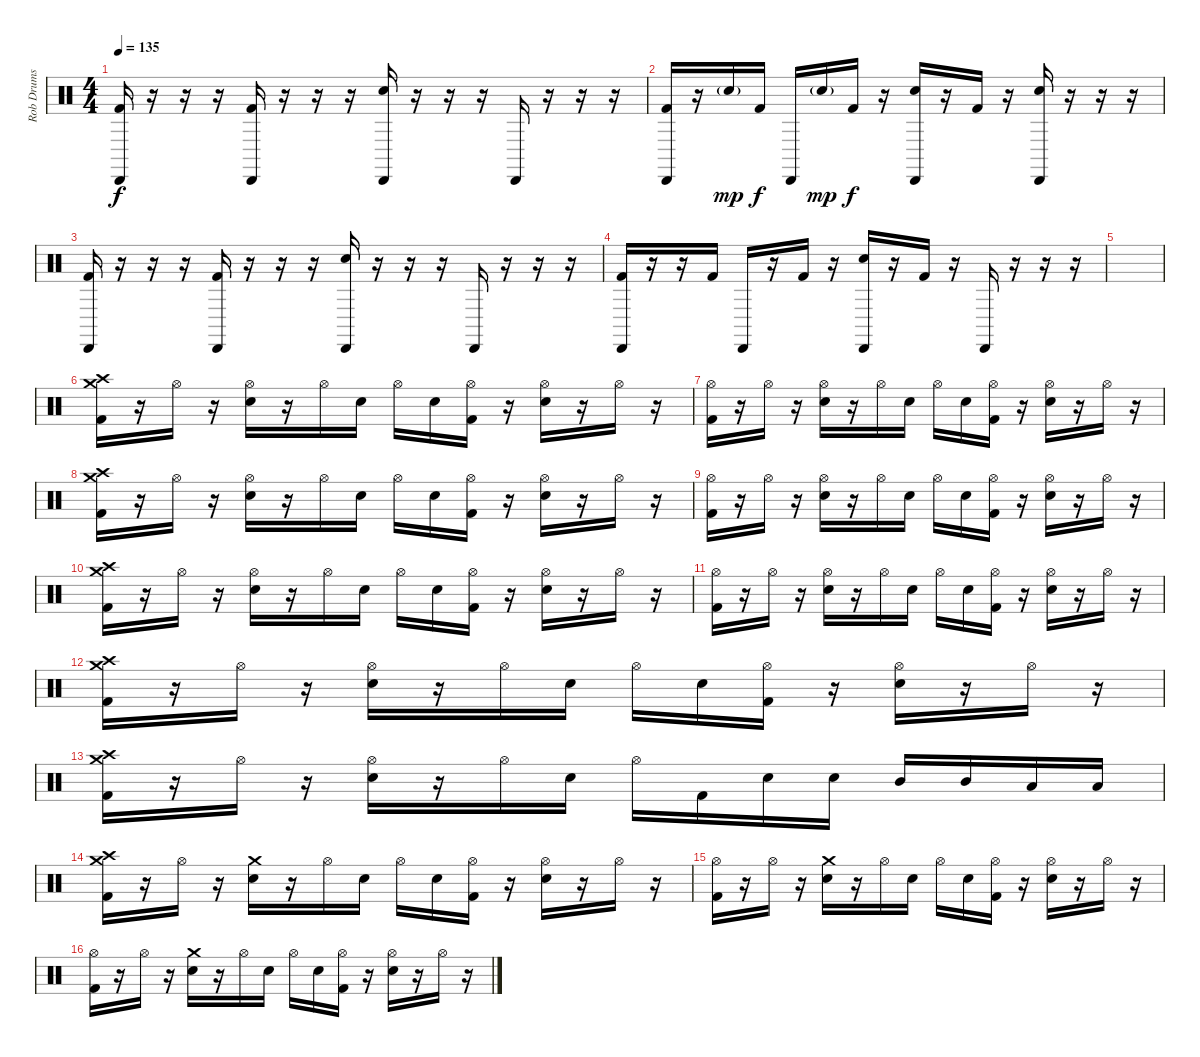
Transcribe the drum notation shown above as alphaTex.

\track ("Rob Drums" "Rob Drums") {instrument percussion}
\staff {score}
\articulation defaults
\ts (4 4)
\tempo 135
\clef neutral
\ks c
("Cabasa (hit)" "Kick (hit) 2").16{dy f} r.16 r.16 r.16 ("Cabasa (hit)" "Kick (hit) 2").16 r.16 r.16 r.16 ("Cabasa (hit)" "Hand Clap (hit)").16 r.16 r.16 r.16 "Cabasa (hit)".16 r.16 r.16 r.16 |
("Cabasa (hit)" "Kick (hit) 2").16 r.16 "Hand Clap (hit)"{g}.16{dy mp} "Kick (hit) 2".16{dy f} "Cabasa (hit)".16 "Hand Clap (hit)"{g}.16{dy mp} "Kick (hit) 2".16{dy f} r.16 ("Cabasa (hit)" "Hand Clap (hit)").16 r.16 "Kick (hit) 2".16 r.16 ("Cabasa (hit)" "Hand Clap (hit)").16 r.16 r.16 r.16 |
("Cabasa (hit)" "Kick (hit) 2").16 r.16 r.16 r.16 ("Cabasa (hit)" "Kick (hit) 2").16 r.16 r.16 r.16 ("Cabasa (hit)" "Hand Clap (hit)").16 r.16 r.16 r.16 "Cabasa (hit)".16 r.16 r.16 r.16 |
("Cabasa (hit)" "Kick (hit) 2").16 r.16 r.16 "Kick (hit) 2".16 "Cabasa (hit)".16 r.16 "Kick (hit) 2".16 r.16 ("Cabasa (hit)" "Hand Clap (hit)").16 r.16 "Kick (hit) 2".16 r.16 "Cabasa (hit)".16 r.16 r.16 r.16 |
|
("Crash high (hit)" "Crash medium (hit)" "Kick (hit) 2").16 r.16 "Hi-Hat (open)".16 r.16 ("Hi-Hat (open)" "Electric Snare (hit)").16 r.16 "Hi-Hat (open)".16 "Electric Snare (hit)".16 "Hi-Hat (open)".16 "Electric Snare (hit)".16 ("Hi-Hat (open)" "Kick (hit) 2").16 r.16 ("Hi-Hat (open)" "Electric Snare (hit)").16 r.16 "Hi-Hat (open)".16 r.16 |
("Hi-Hat (open)" "Kick (hit) 2").16 r.16 "Hi-Hat (open)".16 r.16 ("Hi-Hat (open)" "Electric Snare (hit)").16 r.16 "Hi-Hat (open)".16 "Electric Snare (hit)".16 "Hi-Hat (open)".16 "Electric Snare (hit)".16 ("Hi-Hat (open)" "Kick (hit) 2").16 r.16 ("Hi-Hat (open)" "Electric Snare (hit)").16 r.16 "Hi-Hat (open)".16 r.16 |
("Crash high (hit)" "Crash medium (hit)" "Kick (hit) 2").16 r.16 "Hi-Hat (open)".16 r.16 ("Hi-Hat (open)" "Electric Snare (hit)").16 r.16 "Hi-Hat (open)".16 "Electric Snare (hit)".16 "Hi-Hat (open)".16 "Electric Snare (hit)".16 ("Hi-Hat (open)" "Kick (hit) 2").16 r.16 ("Hi-Hat (open)" "Electric Snare (hit)").16 r.16 "Hi-Hat (open)".16 r.16 |
("Hi-Hat (open)" "Kick (hit) 2").16 r.16 "Hi-Hat (open)".16 r.16 ("Hi-Hat (open)" "Electric Snare (hit)").16 r.16 "Hi-Hat (open)".16 "Electric Snare (hit)".16 "Hi-Hat (open)".16 "Electric Snare (hit)".16 ("Hi-Hat (open)" "Kick (hit) 2").16 r.16 ("Hi-Hat (open)" "Electric Snare (hit)").16 r.16 "Hi-Hat (open)".16 r.16 |
("Crash high (hit)" "Crash medium (hit)" "Kick (hit) 2").16 r.16 "Hi-Hat (open)".16 r.16 ("Hi-Hat (open)" "Electric Snare (hit)").16 r.16 "Hi-Hat (open)".16 "Electric Snare (hit)".16 "Hi-Hat (open)".16 "Electric Snare (hit)".16 ("Hi-Hat (open)" "Kick (hit) 2").16 r.16 ("Hi-Hat (open)" "Electric Snare (hit)").16 r.16 "Hi-Hat (open)".16 r.16 |
("Hi-Hat (open)" "Kick (hit) 2").16 r.16 "Hi-Hat (open)".16 r.16 ("Hi-Hat (open)" "Electric Snare (hit)").16 r.16 "Hi-Hat (open)".16 "Electric Snare (hit)".16 "Hi-Hat (open)".16 "Electric Snare (hit)".16 ("Hi-Hat (open)" "Kick (hit) 2").16 r.16 ("Hi-Hat (open)" "Electric Snare (hit)").16 r.16 "Hi-Hat (open)".16 r.16 |
("Crash high (hit)" "Crash medium (hit)" "Kick (hit) 2").16 r.16 "Hi-Hat (open)".16 r.16 ("Hi-Hat (open)" "Electric Snare (hit)").16 r.16 "Hi-Hat (open)".16 "Electric Snare (hit)".16 "Hi-Hat (open)".16 "Electric Snare (hit)".16 ("Hi-Hat (open)" "Kick (hit) 2").16 r.16 ("Hi-Hat (open)" "Electric Snare (hit)").16 r.16 "Hi-Hat (open)".16 r.16 |
("Crash high (hit)" "Crash medium (hit)" "Kick (hit) 2").16 r.16 "Hi-Hat (open)".16 r.16 ("Hi-Hat (open)" "Electric Snare (hit)").16 r.16 "Hi-Hat (open)".16 "Electric Snare (hit)".16 "Hi-Hat (open)".16 "Kick (hit) 2".16 "Electric Snare (hit)".16 "Electric Snare (hit)".16 "Mid Tom (hit)".16 "Mid Tom (hit)".16 "Low Tom (hit)".16 "Low Tom (hit)".16 |
("Crash high (hit)" "Crash medium (hit)" "Kick (hit) 2").16 r.16 "Hi-Hat (open)".16 r.16 ("Crash medium (hit)" "Electric Snare (hit)").16 r.16 "Hi-Hat (open)".16 "Electric Snare (hit)".16 "Hi-Hat (open)".16 "Electric Snare (hit)".16 ("Hi-Hat (open)" "Kick (hit) 2").16 r.16 ("Hi-Hat (open)" "Electric Snare (hit)").16 r.16 "Hi-Hat (open)".16 r.16 |
("Hi-Hat (open)" "Kick (hit) 2").16 r.16 "Hi-Hat (open)".16 r.16 ("Crash medium (hit)" "Electric Snare (hit)").16 r.16 "Hi-Hat (open)".16 "Electric Snare (hit)".16 "Hi-Hat (open)".16 "Electric Snare (hit)".16 ("Hi-Hat (open)" "Kick (hit) 2").16 r.16 ("Hi-Hat (open)" "Electric Snare (hit)").16 r.16 "Hi-Hat (open)".16 r.16 |
("Hi-Hat (open)" "Kick (hit) 2").16 r.16 "Hi-Hat (open)".16 r.16 ("Crash medium (hit)" "Electric Snare (hit)").16 r.16 "Hi-Hat (open)".16 "Electric Snare (hit)".16 "Hi-Hat (open)".16 "Electric Snare (hit)".16 ("Hi-Hat (open)" "Kick (hit) 2").16 r.16 ("Hi-Hat (open)" "Electric Snare (hit)").16 r.16 "Hi-Hat (open)".16 r.16
